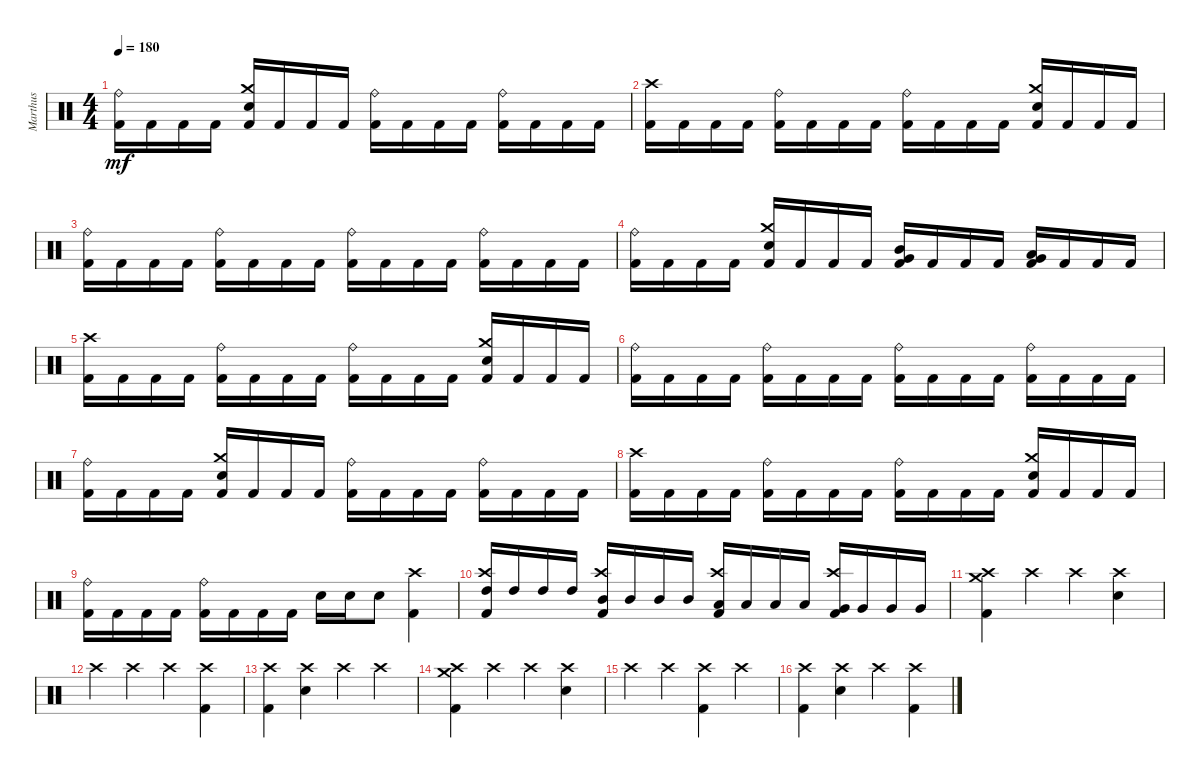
\track ("Marthus" "Marthus") {instrument percussion}
\staff {score}
\articulation defaults
\ts (4 4)
\tempo 180
\clef neutral
\ks c
("Ride (bell)" "Kick (hit) 2").16{dy mf} "Kick (hit) 2".16 "Kick (hit) 2".16 "Kick (hit) 2".16 ("Crash medium (hit)" "Electric Snare (hit)" "Kick (hit) 2").16 "Kick (hit) 2".16 "Kick (hit) 2".16 "Kick (hit) 2".16 ("Ride (bell)" "Kick (hit) 2").16 "Kick (hit) 2".16 "Kick (hit) 2".16 "Kick (hit) 2".16 ("Ride (bell)" "Kick (hit) 2").16 "Kick (hit) 2".16 "Kick (hit) 2".16 "Kick (hit) 2".16 |
("Crash high (hit)" "Kick (hit) 2").16 "Kick (hit) 2".16 "Kick (hit) 2".16 "Kick (hit) 2".16 ("Ride (bell)" "Kick (hit) 2").16 "Kick (hit) 2".16 "Kick (hit) 2".16 "Kick (hit) 2".16 ("Ride (bell)" "Kick (hit) 2").16 "Kick (hit) 2".16 "Kick (hit) 2".16 "Kick (hit) 2".16 ("Crash medium (hit)" "Electric Snare (hit)" "Kick (hit) 2").16 "Kick (hit) 2".16 "Kick (hit) 2".16 "Kick (hit) 2".16 |
("Ride (bell)" "Kick (hit) 2").16 "Kick (hit) 2".16 "Kick (hit) 2".16 "Kick (hit) 2".16 ("Ride (bell)" "Kick (hit) 2").16 "Kick (hit) 2".16 "Kick (hit) 2".16 "Kick (hit) 2".16 ("Ride (bell)" "Kick (hit) 2").16 "Kick (hit) 2".16 "Kick (hit) 2".16 "Kick (hit) 2".16 ("Ride (bell)" "Kick (hit) 2").16 "Kick (hit) 2".16 "Kick (hit) 2".16 "Kick (hit) 2".16 |
("Ride (bell)" "Kick (hit) 2").16 "Kick (hit) 2".16 "Kick (hit) 2".16 "Kick (hit) 2".16 ("Crash medium (hit)" "Electric Snare (hit)" "Kick (hit) 2").16 "Kick (hit) 2".16 "Kick (hit) 2".16 "Kick (hit) 2".16 ("Mid Tom (hit)" "Very Low Tom (hit)" "Kick (hit) 2").16 "Kick (hit) 2".16 "Kick (hit) 2".16 "Kick (hit) 2".16 ("Low Tom (hit)" "Very Low Tom (hit)" "Kick (hit) 2").16 "Kick (hit) 2".16 "Kick (hit) 2".16 "Kick (hit) 2".16 |
("Crash high (hit)" "Kick (hit) 2").16 "Kick (hit) 2".16 "Kick (hit) 2".16 "Kick (hit) 2".16 ("Ride (bell)" "Kick (hit) 2").16 "Kick (hit) 2".16 "Kick (hit) 2".16 "Kick (hit) 2".16 ("Ride (bell)" "Kick (hit) 2").16 "Kick (hit) 2".16 "Kick (hit) 2".16 "Kick (hit) 2".16 ("Crash medium (hit)" "Electric Snare (hit)" "Kick (hit) 2").16 "Kick (hit) 2".16 "Kick (hit) 2".16 "Kick (hit) 2".16 |
("Ride (bell)" "Kick (hit) 2").16 "Kick (hit) 2".16 "Kick (hit) 2".16 "Kick (hit) 2".16 ("Ride (bell)" "Kick (hit) 2").16 "Kick (hit) 2".16 "Kick (hit) 2".16 "Kick (hit) 2".16 ("Ride (bell)" "Kick (hit) 2").16 "Kick (hit) 2".16 "Kick (hit) 2".16 "Kick (hit) 2".16 ("Ride (bell)" "Kick (hit) 2").16 "Kick (hit) 2".16 "Kick (hit) 2".16 "Kick (hit) 2".16 |
("Ride (bell)" "Kick (hit) 2").16 "Kick (hit) 2".16 "Kick (hit) 2".16 "Kick (hit) 2".16 ("Crash medium (hit)" "Electric Snare (hit)" "Kick (hit) 2").16 "Kick (hit) 2".16 "Kick (hit) 2".16 "Kick (hit) 2".16 ("Ride (bell)" "Kick (hit) 2").16 "Kick (hit) 2".16 "Kick (hit) 2".16 "Kick (hit) 2".16 ("Ride (bell)" "Kick (hit) 2").16 "Kick (hit) 2".16 "Kick (hit) 2".16 "Kick (hit) 2".16 |
("Crash high (hit)" "Kick (hit) 2").16 "Kick (hit) 2".16 "Kick (hit) 2".16 "Kick (hit) 2".16 ("Ride (bell)" "Kick (hit) 2").16 "Kick (hit) 2".16 "Kick (hit) 2".16 "Kick (hit) 2".16 ("Ride (bell)" "Kick (hit) 2").16 "Kick (hit) 2".16 "Kick (hit) 2".16 "Kick (hit) 2".16 ("Crash medium (hit)" "Electric Snare (hit)" "Kick (hit) 2").16 "Kick (hit) 2".16 "Kick (hit) 2".16 "Kick (hit) 2".16 |
("Ride (bell)" "Kick (hit) 2").16 "Kick (hit) 2".16 "Kick (hit) 2".16 "Kick (hit) 2".16 ("Ride (bell)" "Kick (hit) 2").16 "Kick (hit) 2".16 "Kick (hit) 2".16 "Kick (hit) 2".16 "Electric Snare (hit)".16 "Electric Snare (hit)".16 "Electric Snare (hit)".8 ("Crash high (hit)" "Kick (hit) 2").4 |
("Crash high (hit)" "High Tom (hit)" "Kick (hit) 2").16 "High Tom (hit)".16 "High Tom (hit)".16 "High Tom (hit)".16 ("Crash high (hit)" "Mid Tom (hit)" "Kick (hit) 2").16 "Mid Tom (hit)".16 "Mid Tom (hit)".16 "Mid Tom (hit)".16 ("Crash high (hit)" "Low Tom (hit)" "Kick (hit) 2").16 "Low Tom (hit)".16 "Low Tom (hit)".16 "Low Tom (hit)".16 ("Crash high (hit)" "Very Low Tom (hit)" "Kick (hit) 2").16 "Very Low Tom (hit)".16 "Very Low Tom (hit)".16 "Very Low Tom (hit)".16 |
("Crash medium (hit)" "Crash high (hit)" "Kick (hit) 2").4 "Crash high (hit)".4 "Crash high (hit)".4 ("Crash high (hit)" "Electric Snare (hit)").4 |
"Crash high (hit)".4 "Crash high (hit)".4 "Crash high (hit)".4 ("Crash high (hit)" "Kick (hit) 2").4 |
("Crash high (hit)" "Kick (hit) 2").4 ("Crash high (hit)" "Electric Snare (hit)").4 "Crash high (hit)".4 "Crash high (hit)".4 |
("Crash medium (hit)" "Crash high (hit)" "Kick (hit) 2").4 "Crash high (hit)".4 "Crash high (hit)".4 ("Crash high (hit)" "Electric Snare (hit)").4 |
"Crash high (hit)".4 "Crash high (hit)".4 ("Crash high (hit)" "Kick (hit) 2").4 "Crash high (hit)".4 |
("Crash high (hit)" "Kick (hit) 2").4 ("Crash high (hit)" "Electric Snare (hit)").4 "Crash high (hit)".4 ("Crash high (hit)" "Kick (hit) 2").4
